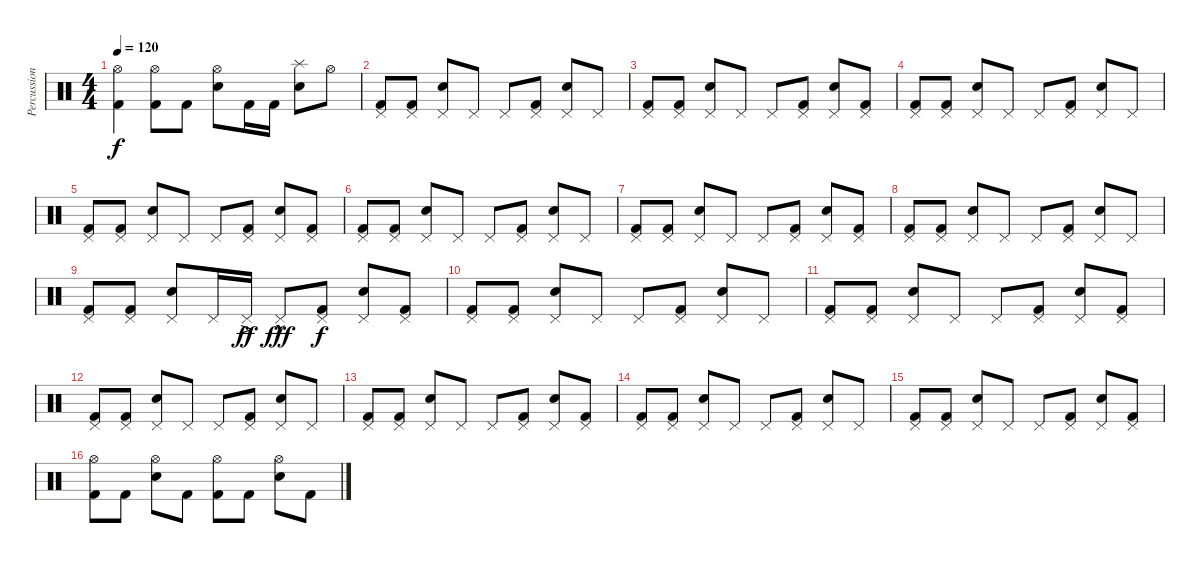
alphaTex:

\track ("Percussion" "Percussion") {instrument percussion}
\staff {score}
\articulation defaults
\ts (4 4)
\tempo 120
\clef neutral
\ks c
("Hi-Hat (open)" "Kick (hit) 2").4{dy f} ("Hi-Hat (open)" "Kick (hit) 2").8 "Kick (hit) 2".8 ("Hi-Hat (open)" "Electric Snare (hit)").8 "Kick (hit) 2".16 "Kick (hit) 2".16 ("Splash (hit)" "Electric Snare (hit)").8 "Hi-Hat (open)".8 |
("Pedal Hi-Hat (hit)" "Kick (hit) 2").8 ("Pedal Hi-Hat (hit)" "Kick (hit) 2").8 ("Pedal Hi-Hat (hit)" "Electric Snare (hit)").8 "Pedal Hi-Hat (hit)".8 "Pedal Hi-Hat (hit)".8 ("Pedal Hi-Hat (hit)" "Kick (hit) 2").8 ("Pedal Hi-Hat (hit)" "Electric Snare (hit)").8 "Pedal Hi-Hat (hit)".8 |
("Pedal Hi-Hat (hit)" "Kick (hit) 2").8 ("Pedal Hi-Hat (hit)" "Kick (hit) 2").8 ("Pedal Hi-Hat (hit)" "Electric Snare (hit)").8 "Pedal Hi-Hat (hit)".8 "Pedal Hi-Hat (hit)".8 ("Pedal Hi-Hat (hit)" "Kick (hit) 2").8 ("Pedal Hi-Hat (hit)" "Electric Snare (hit)").8 ("Pedal Hi-Hat (hit)" "Kick (hit) 2").8 |
("Pedal Hi-Hat (hit)" "Kick (hit) 2").8 ("Pedal Hi-Hat (hit)" "Kick (hit) 2").8 ("Pedal Hi-Hat (hit)" "Electric Snare (hit)").8 "Pedal Hi-Hat (hit)".8 "Pedal Hi-Hat (hit)".8 ("Pedal Hi-Hat (hit)" "Kick (hit) 2").8 ("Pedal Hi-Hat (hit)" "Electric Snare (hit)").8 "Pedal Hi-Hat (hit)".8 |
("Pedal Hi-Hat (hit)" "Kick (hit) 2").8 ("Pedal Hi-Hat (hit)" "Kick (hit) 2").8 ("Pedal Hi-Hat (hit)" "Electric Snare (hit)").8 "Pedal Hi-Hat (hit)".8 "Pedal Hi-Hat (hit)".8 ("Pedal Hi-Hat (hit)" "Kick (hit) 2").8 ("Pedal Hi-Hat (hit)" "Electric Snare (hit)").8 ("Pedal Hi-Hat (hit)" "Kick (hit) 2").8 |
("Pedal Hi-Hat (hit)" "Kick (hit) 2").8 ("Pedal Hi-Hat (hit)" "Kick (hit) 2").8 ("Pedal Hi-Hat (hit)" "Electric Snare (hit)").8 "Pedal Hi-Hat (hit)".8 "Pedal Hi-Hat (hit)".8 ("Pedal Hi-Hat (hit)" "Kick (hit) 2").8 ("Pedal Hi-Hat (hit)" "Electric Snare (hit)").8 "Pedal Hi-Hat (hit)".8 |
("Pedal Hi-Hat (hit)" "Kick (hit) 2").8 ("Pedal Hi-Hat (hit)" "Kick (hit) 2").8 ("Pedal Hi-Hat (hit)" "Electric Snare (hit)").8 "Pedal Hi-Hat (hit)".8 "Pedal Hi-Hat (hit)".8 ("Pedal Hi-Hat (hit)" "Kick (hit) 2").8 ("Pedal Hi-Hat (hit)" "Electric Snare (hit)").8 ("Pedal Hi-Hat (hit)" "Kick (hit) 2").8 |
("Pedal Hi-Hat (hit)" "Kick (hit) 2").8 ("Pedal Hi-Hat (hit)" "Kick (hit) 2").8 ("Pedal Hi-Hat (hit)" "Electric Snare (hit)").8 "Pedal Hi-Hat (hit)".8 "Pedal Hi-Hat (hit)".8 ("Pedal Hi-Hat (hit)" "Kick (hit) 2").8 ("Pedal Hi-Hat (hit)" "Electric Snare (hit)").8 "Pedal Hi-Hat (hit)".8 |
("Pedal Hi-Hat (hit)" "Kick (hit) 2").8 ("Pedal Hi-Hat (hit)" "Kick (hit) 2").8 ("Pedal Hi-Hat (hit)" "Electric Snare (hit)").8 "Pedal Hi-Hat (hit)".16 "Pedal Hi-Hat (hit)"{ac}.16{dy ff} "Pedal Hi-Hat (hit)"{hac}.8{dy fff} ("Pedal Hi-Hat (hit)" "Kick (hit) 2").8{dy f} ("Pedal Hi-Hat (hit)" "Electric Snare (hit)").8 ("Pedal Hi-Hat (hit)" "Kick (hit) 2").8 |
("Pedal Hi-Hat (hit)" "Kick (hit) 2").8 ("Pedal Hi-Hat (hit)" "Kick (hit) 2").8 ("Pedal Hi-Hat (hit)" "Electric Snare (hit)").8 "Pedal Hi-Hat (hit)".8 "Pedal Hi-Hat (hit)".8 ("Pedal Hi-Hat (hit)" "Kick (hit) 2").8 ("Pedal Hi-Hat (hit)" "Electric Snare (hit)").8 "Pedal Hi-Hat (hit)".8 |
("Pedal Hi-Hat (hit)" "Kick (hit) 2").8 ("Pedal Hi-Hat (hit)" "Kick (hit) 2").8 ("Pedal Hi-Hat (hit)" "Electric Snare (hit)").8 "Pedal Hi-Hat (hit)".8 "Pedal Hi-Hat (hit)".8 ("Pedal Hi-Hat (hit)" "Kick (hit) 2").8 ("Pedal Hi-Hat (hit)" "Electric Snare (hit)").8 ("Pedal Hi-Hat (hit)" "Kick (hit) 2").8 |
("Pedal Hi-Hat (hit)" "Kick (hit) 2").8 ("Pedal Hi-Hat (hit)" "Kick (hit) 2").8 ("Pedal Hi-Hat (hit)" "Electric Snare (hit)").8 "Pedal Hi-Hat (hit)".8 "Pedal Hi-Hat (hit)".8 ("Pedal Hi-Hat (hit)" "Kick (hit) 2").8 ("Pedal Hi-Hat (hit)" "Electric Snare (hit)").8 "Pedal Hi-Hat (hit)".8 |
("Pedal Hi-Hat (hit)" "Kick (hit) 2").8 ("Pedal Hi-Hat (hit)" "Kick (hit) 2").8 ("Pedal Hi-Hat (hit)" "Electric Snare (hit)").8 "Pedal Hi-Hat (hit)".8 "Pedal Hi-Hat (hit)".8 ("Pedal Hi-Hat (hit)" "Kick (hit) 2").8 ("Pedal Hi-Hat (hit)" "Electric Snare (hit)").8 ("Pedal Hi-Hat (hit)" "Kick (hit) 2").8 |
("Pedal Hi-Hat (hit)" "Kick (hit) 2").8 ("Pedal Hi-Hat (hit)" "Kick (hit) 2").8 ("Pedal Hi-Hat (hit)" "Electric Snare (hit)").8 "Pedal Hi-Hat (hit)".8 "Pedal Hi-Hat (hit)".8 ("Pedal Hi-Hat (hit)" "Kick (hit) 2").8 ("Pedal Hi-Hat (hit)" "Electric Snare (hit)").8 "Pedal Hi-Hat (hit)".8 |
("Pedal Hi-Hat (hit)" "Kick (hit) 2").8 ("Pedal Hi-Hat (hit)" "Kick (hit) 2").8 ("Pedal Hi-Hat (hit)" "Electric Snare (hit)").8 "Pedal Hi-Hat (hit)".8 "Pedal Hi-Hat (hit)".8 ("Pedal Hi-Hat (hit)" "Kick (hit) 2").8 ("Pedal Hi-Hat (hit)" "Electric Snare (hit)").8 ("Pedal Hi-Hat (hit)" "Kick (hit) 2").8 |
("Hi-Hat (open)" "Kick (hit) 2").8 "Kick (hit) 2".8 ("Hi-Hat (open)" "Electric Snare (hit)").8 "Kick (hit) 2".8 ("Hi-Hat (open)" "Kick (hit) 2").8 "Kick (hit) 2".8 ("Hi-Hat (open)" "Electric Snare (hit)").8 "Kick (hit) 2".8
